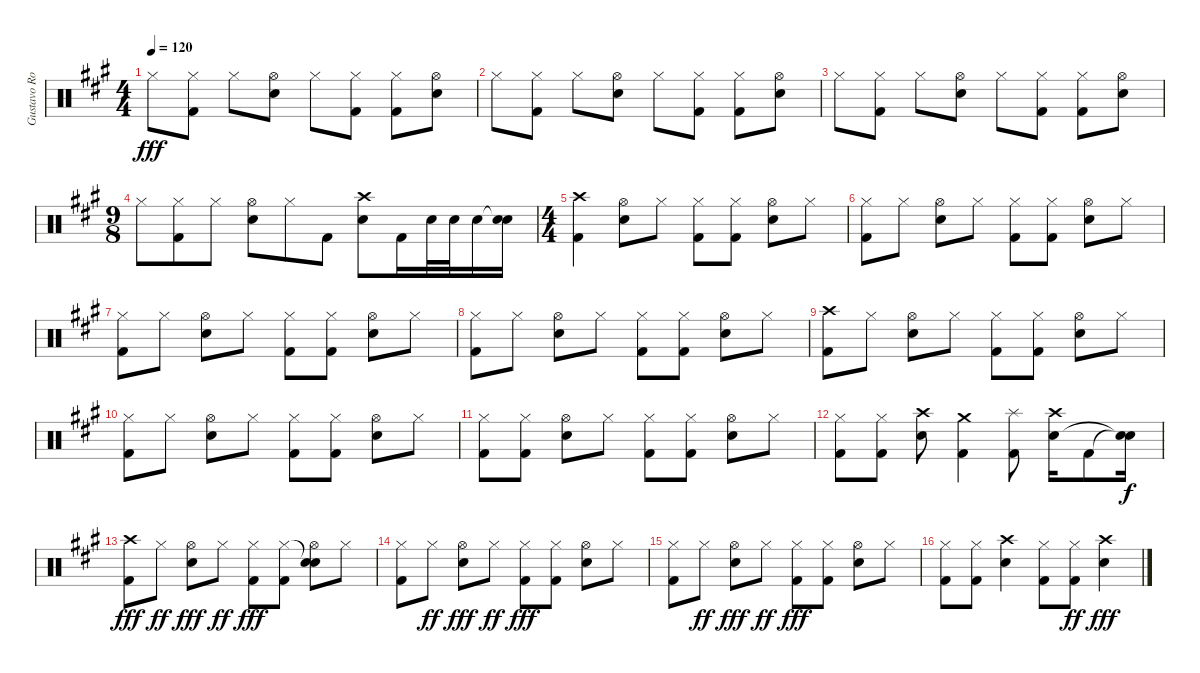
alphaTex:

\track ("Gustavo Rowek" "Gustavo Ro") {instrument percussion}
\staff {score}
\articulation defaults
\ts (4 4)
\tempo 120
\clef neutral
\ks a "Hi-Hat (closed)".8{dy fff}
("Hi-Hat (closed)" "Kick (hit) 2").8 "Hi-Hat (closed)".8 ("Hi-Hat (open)" "Snare (hit) 2").8 "Hi-Hat (closed)".8 ("Hi-Hat (closed)" "Kick (hit) 2").8 ("Hi-Hat (closed)" "Kick (hit) 2").8 ("Hi-Hat (open)" "Snare (hit) 2").8 |
"Hi-Hat (closed)".8 ("Hi-Hat (closed)" "Kick (hit) 2").8 "Hi-Hat (closed)".8 ("Hi-Hat (open)" "Snare (hit) 2").8 "Hi-Hat (closed)".8 ("Hi-Hat (closed)" "Kick (hit) 2").8 ("Hi-Hat (closed)" "Kick (hit) 2").8 ("Hi-Hat (open)" "Snare (hit) 2").8 |
"Hi-Hat (closed)".8 ("Hi-Hat (closed)" "Kick (hit) 2").8 "Hi-Hat (closed)".8 ("Hi-Hat (open)" "Snare (hit) 2").8 "Hi-Hat (closed)".8 ("Hi-Hat (closed)" "Kick (hit) 2").8 ("Hi-Hat (closed)" "Kick (hit) 2").8 ("Hi-Hat (open)" "Snare (hit) 2").8 |
\ts (9 8)
"Hi-Hat (closed)".8 ("Hi-Hat (closed)" "Kick (hit) 2").8 "Hi-Hat (closed)".8 ("Hi-Hat (open)" "Snare (hit) 2").8 "Hi-Hat (closed)".8 "Kick (hit) 2".8 ("Crash high (hit)" "Snare (hit) 2").8 "Kick (hit) 2".16 "Snare (hit) 2".32 "Snare (hit) 2".32 "Snare (hit) 2".16 ("Snare (hit)"{t} "Snare (hit) 2").16 |
\ts (4 4)
("Crash high (hit)" "Kick (hit) 2").4 ("Hi-Hat (open)" "Snare (hit) 2").8 "Hi-Hat (closed)".8 ("Hi-Hat (closed)" "Kick (hit) 2").8 ("Hi-Hat (closed)" "Kick (hit) 2").8 ("Hi-Hat (open)" "Snare (hit) 2").8 "Hi-Hat (closed)".8 |
("Hi-Hat (closed)" "Kick (hit) 2").8 "Hi-Hat (closed)".8 ("Hi-Hat (open)" "Snare (hit) 2").8 "Hi-Hat (closed)".8 ("Hi-Hat (closed)" "Kick (hit) 2").8 ("Hi-Hat (closed)" "Kick (hit) 2").8 ("Hi-Hat (open)" "Snare (hit) 2").8 "Hi-Hat (closed)".8 |
("Hi-Hat (closed)" "Kick (hit) 2").8 "Hi-Hat (closed)".8 ("Hi-Hat (open)" "Snare (hit) 2").8 "Hi-Hat (closed)".8 ("Hi-Hat (closed)" "Kick (hit) 2").8 ("Hi-Hat (closed)" "Kick (hit) 2").8 ("Hi-Hat (open)" "Snare (hit) 2").8 "Hi-Hat (closed)".8 |
("Hi-Hat (closed)" "Kick (hit) 2").8 "Hi-Hat (closed)".8 ("Hi-Hat (open)" "Snare (hit) 2").8 "Hi-Hat (closed)".8 ("Hi-Hat (closed)" "Kick (hit) 2").8 ("Hi-Hat (closed)" "Kick (hit) 2").8 ("Hi-Hat (open)" "Snare (hit) 2").8 "Hi-Hat (closed)".8 |
("Crash high (hit)" "Kick (hit) 2").8 "Hi-Hat (closed)".8 ("Hi-Hat (open)" "Snare (hit) 2").8 "Hi-Hat (closed)".8 ("Hi-Hat (closed)" "Kick (hit) 2").8 ("Hi-Hat (closed)" "Kick (hit) 2").8 ("Hi-Hat (open)" "Snare (hit) 2").8 "Hi-Hat (closed)".8 |
("Hi-Hat (closed)" "Kick (hit) 2").8 "Hi-Hat (closed)".8 ("Hi-Hat (open)" "Snare (hit) 2").8 "Hi-Hat (closed)".8 ("Hi-Hat (closed)" "Kick (hit) 2").8 ("Hi-Hat (closed)" "Kick (hit) 2").8 ("Hi-Hat (open)" "Snare (hit) 2").8 "Hi-Hat (closed)".8 |
("Hi-Hat (closed)" "Kick (hit) 2").8 ("Hi-Hat (closed)" "Kick (hit) 2").8 ("Hi-Hat (open)" "Snare (hit) 2").8 "Hi-Hat (closed)".8 ("Hi-Hat (closed)" "Kick (hit) 2").8 ("Hi-Hat (closed)" "Kick (hit) 2").8 ("Hi-Hat (open)" "Snare (hit) 2").8 "Hi-Hat (closed)".8 |
("Hi-Hat (closed)" "Kick (hit) 2").8 ("Hi-Hat (closed)" "Kick (hit) 2").8 ("Crash high (hit)" "Snare (hit) 2").8 ("Crash medium (hit)" "Kick (hit) 2").4 ("Splash (hit)" "Kick (hit) 2").8 ("Crash high (hit)" "Snare (hit) 2").16 "Kick (hit) 2".8 ("Snare (hit)"{t} "Snare (hit)"{t}).16{dy f} |
("Crash high (hit)" "Kick (hit) 2").8{dy fff} "Hi-Hat (closed)".8{dy ff} ("Hi-Hat (open)" "Snare (hit) 2").8{dy fff} "Hi-Hat (closed)".8{dy ff} ("Hi-Hat (closed)" "Kick (hit) 2").8{dy fff} ("Hi-Hat (closed)" "Kick (hit) 2").8 ("Snare (hit)"{t} "Hi-Hat (open)" "Snare (hit) 2").8 "Hi-Hat (closed)".8 |
("Hi-Hat (closed)" "Kick (hit) 2").8 "Hi-Hat (closed)".8{dy ff} ("Hi-Hat (open)" "Snare (hit) 2").8{dy fff} "Hi-Hat (closed)".8{dy ff} ("Hi-Hat (closed)" "Kick (hit) 2").8{dy fff} ("Hi-Hat (closed)" "Kick (hit) 2").8 ("Hi-Hat (open)" "Snare (hit) 2").8 "Hi-Hat (closed)".8 |
("Hi-Hat (closed)" "Kick (hit) 2").8 "Hi-Hat (closed)".8{dy ff} ("Hi-Hat (open)" "Snare (hit) 2").8{dy fff} "Hi-Hat (closed)".8{dy ff} ("Hi-Hat (closed)" "Kick (hit) 2").8{dy fff} ("Hi-Hat (closed)" "Kick (hit) 2").8 ("Hi-Hat (open)" "Snare (hit) 2").8 "Hi-Hat (closed)".8 |
("Hi-Hat (closed)" "Kick (hit) 2").8 ("Hi-Hat (closed)" "Kick (hit) 2").8 ("Crash high (hit)" "Snare (hit) 2").4 ("Hi-Hat (closed)" "Kick (hit) 2").8 ("Hi-Hat (closed)" "Kick (hit) 2").8{dy ff} ("Crash high (hit)" "Snare (hit) 2").4{dy fff}
